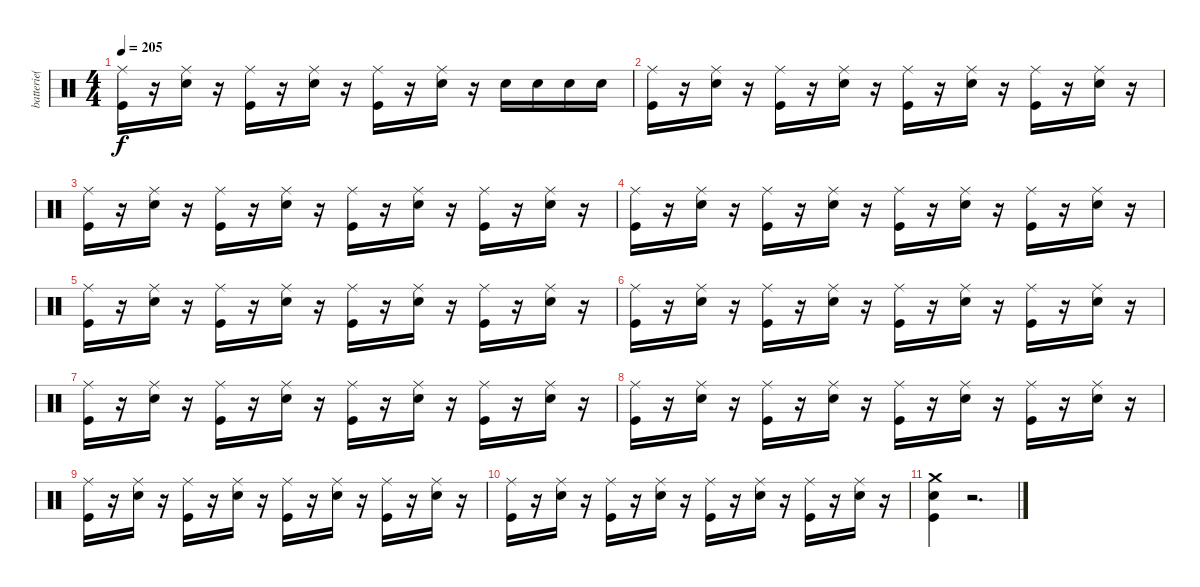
\track ("batterie( Rob )" "batterie( ") {instrument percussion}
\staff {score}
\articulation defaults
\ts (4 4)
\tempo 205
\clef neutral
\ks c
("Ride (middle)" "Kick (hit)").16{dy f} r.16 ("Ride (middle)" "Snare (hit) 2").16 r.16 ("Ride (middle)" "Kick (hit)").16 r.16 ("Ride (middle)" "Snare (hit) 2").16 r.16 ("Ride (middle)" "Kick (hit)").16 r.16 ("Ride (middle)" "Snare (hit) 2").16 r.16 "Snare (hit) 2".16 "Snare (hit) 2".16 "Snare (hit) 2".16 "Snare (hit) 2".16 |
("Ride (middle)" "Kick (hit)").16 r.16 ("Ride (middle)" "Snare (hit) 2").16 r.16 ("Ride (middle)" "Kick (hit)").16 r.16 ("Ride (middle)" "Snare (hit) 2").16 r.16 ("Ride (middle)" "Kick (hit)").16 r.16 ("Ride (middle)" "Snare (hit) 2").16 r.16 ("Ride (middle)" "Kick (hit)").16 r.16 ("Ride (middle)" "Snare (hit) 2").16 r.16 |
("Ride (middle)" "Kick (hit)").16 r.16 ("Ride (middle)" "Snare (hit) 2").16 r.16 ("Ride (middle)" "Kick (hit)").16 r.16 ("Ride (middle)" "Snare (hit) 2").16 r.16 ("Ride (middle)" "Kick (hit)").16 r.16 ("Ride (middle)" "Snare (hit) 2").16 r.16 ("Ride (middle)" "Kick (hit)").16 r.16 ("Ride (middle)" "Snare (hit) 2").16 r.16 |
("Ride (middle)" "Kick (hit)").16 r.16 ("Ride (middle)" "Snare (hit) 2").16 r.16 ("Ride (middle)" "Kick (hit)").16 r.16 ("Ride (middle)" "Snare (hit) 2").16 r.16 ("Ride (middle)" "Kick (hit)").16 r.16 ("Ride (middle)" "Snare (hit) 2").16 r.16 ("Ride (middle)" "Kick (hit)").16 r.16 ("Ride (middle)" "Snare (hit) 2").16 r.16 |
("Ride (middle)" "Kick (hit)").16 r.16 ("Ride (middle)" "Snare (hit) 2").16 r.16 ("Ride (middle)" "Kick (hit)").16 r.16 ("Ride (middle)" "Snare (hit) 2").16 r.16 ("Ride (middle)" "Kick (hit)").16 r.16 ("Ride (middle)" "Snare (hit) 2").16 r.16 ("Ride (middle)" "Kick (hit)").16 r.16 ("Ride (middle)" "Snare (hit) 2").16 r.16 |
("Ride (middle)" "Kick (hit)").16 r.16 ("Ride (middle)" "Snare (hit) 2").16 r.16 ("Ride (middle)" "Kick (hit)").16 r.16 ("Ride (middle)" "Snare (hit) 2").16 r.16 ("Ride (middle)" "Kick (hit)").16 r.16 ("Ride (middle)" "Snare (hit) 2").16 r.16 ("Ride (middle)" "Kick (hit)").16 r.16 ("Ride (middle)" "Snare (hit) 2").16 r.16 |
("Ride (middle)" "Kick (hit)").16 r.16 ("Ride (middle)" "Snare (hit) 2").16 r.16 ("Ride (middle)" "Kick (hit)").16 r.16 ("Ride (middle)" "Snare (hit) 2").16 r.16 ("Ride (middle)" "Kick (hit)").16 r.16 ("Ride (middle)" "Snare (hit) 2").16 r.16 ("Ride (middle)" "Kick (hit)").16 r.16 ("Ride (middle)" "Snare (hit) 2").16 r.16 |
("Ride (middle)" "Kick (hit)").16 r.16 ("Ride (middle)" "Snare (hit) 2").16 r.16 ("Ride (middle)" "Kick (hit)").16 r.16 ("Ride (middle)" "Snare (hit) 2").16 r.16 ("Ride (middle)" "Kick (hit)").16 r.16 ("Ride (middle)" "Snare (hit) 2").16 r.16 ("Ride (middle)" "Kick (hit)").16 r.16 ("Ride (middle)" "Snare (hit) 2").16 r.16 |
("Ride (middle)" "Kick (hit)").16 r.16 ("Ride (middle)" "Snare (hit) 2").16 r.16 ("Ride (middle)" "Kick (hit)").16 r.16 ("Ride (middle)" "Snare (hit) 2").16 r.16 ("Ride (middle)" "Kick (hit)").16 r.16 ("Ride (middle)" "Snare (hit) 2").16 r.16 ("Ride (middle)" "Kick (hit)").16 r.16 ("Ride (middle)" "Snare (hit) 2").16 r.16 |
("Ride (middle)" "Kick (hit)").16 r.16 ("Ride (middle)" "Snare (hit) 2").16 r.16 ("Ride (middle)" "Kick (hit)").16 r.16 ("Ride (middle)" "Snare (hit) 2").16 r.16 ("Ride (middle)" "Kick (hit)").16 r.16 ("Ride (middle)" "Snare (hit) 2").16 r.16 ("Ride (middle)" "Kick (hit)").16 r.16 ("Ride (middle)" "Snare (hit) 2").16 r.16 |
("Crash medium (hit)" "Snare (hit) 2" "Kick (hit)").4 r.2{d}
